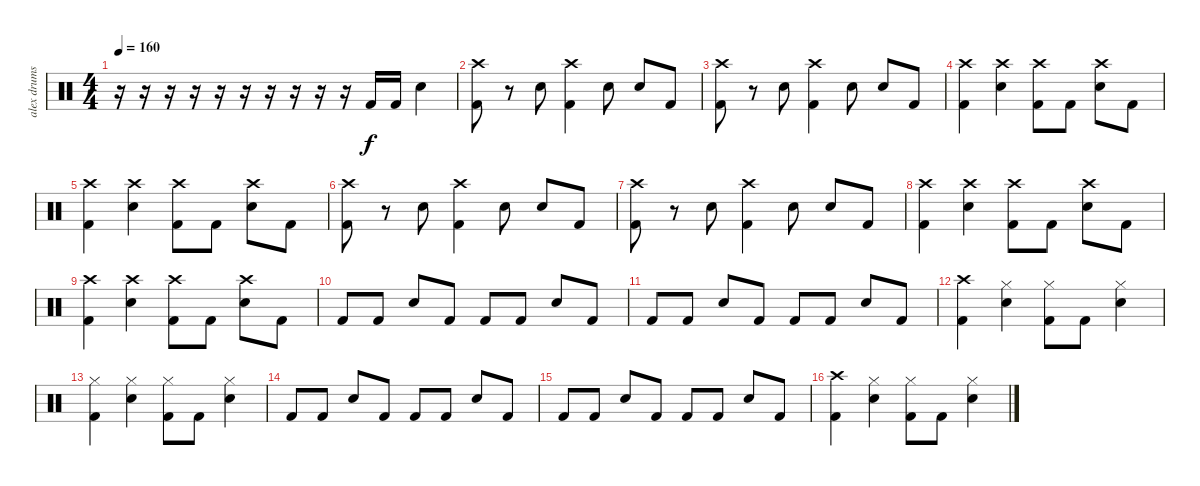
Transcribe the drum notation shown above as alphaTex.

\track ("alex drums" "alex drums") {instrument percussion}
\staff {score}
\articulation defaults
\ts (4 4)
\tempo 160
\clef neutral
\ks c
r.16{dy f} r.16 r.16 r.16 r.16 r.16 r.16 r.16 r.16 r.16 "Kick (hit) 2".16 "Kick (hit) 2".16 "Snare (hit) 2".4 |
("Crash high (hit)" "Kick (hit) 2").8 r.8 "Snare (hit) 2".8 ("Crash high (hit)" "Kick (hit) 2").4 "Snare (hit) 2".8 "Snare (hit) 2".8 "Kick (hit) 2".8 |
("Crash high (hit)" "Kick (hit) 2").8 r.8 "Snare (hit) 2".8 ("Crash high (hit)" "Kick (hit) 2").4 "Snare (hit) 2".8 "Snare (hit) 2".8 "Kick (hit) 2".8 |
("Crash high (hit)" "Kick (hit) 2").4 ("Crash high (hit)" "Snare (hit) 2").4 ("Crash high (hit)" "Kick (hit) 2").8 "Kick (hit) 2".8 ("Crash high (hit)" "Snare (hit) 2").8 "Kick (hit) 2".8 |
("Crash high (hit)" "Kick (hit) 2").4 ("Crash high (hit)" "Snare (hit) 2").4 ("Crash high (hit)" "Kick (hit) 2").8 "Kick (hit) 2".8 ("Crash high (hit)" "Snare (hit) 2").8 "Kick (hit) 2".8 |
("Crash high (hit)" "Kick (hit) 2").8 r.8 "Snare (hit) 2".8 ("Crash high (hit)" "Kick (hit) 2").4 "Snare (hit) 2".8 "Snare (hit) 2".8 "Kick (hit) 2".8 |
("Crash high (hit)" "Kick (hit) 2").8 r.8 "Snare (hit) 2".8 ("Crash high (hit)" "Kick (hit) 2").4 "Snare (hit) 2".8 "Snare (hit) 2".8 "Kick (hit) 2".8 |
("Crash high (hit)" "Kick (hit) 2").4 ("Crash high (hit)" "Snare (hit) 2").4 ("Crash high (hit)" "Kick (hit) 2").8 "Kick (hit) 2".8 ("Crash high (hit)" "Snare (hit) 2").8 "Kick (hit) 2".8 |
("Crash high (hit)" "Kick (hit) 2").4 ("Crash high (hit)" "Snare (hit) 2").4 ("Crash high (hit)" "Kick (hit) 2").8 "Kick (hit) 2".8 ("Crash high (hit)" "Snare (hit) 2").8 "Kick (hit) 2".8 |
"Kick (hit) 2".8 "Kick (hit) 2".8 "Snare (hit) 2".8 "Kick (hit) 2".8 "Kick (hit) 2".8 "Kick (hit) 2".8 "Snare (hit) 2".8 "Kick (hit) 2".8 |
"Kick (hit) 2".8 "Kick (hit) 2".8 "Snare (hit) 2".8 "Kick (hit) 2".8 "Kick (hit) 2".8 "Kick (hit) 2".8 "Snare (hit) 2".8 "Kick (hit) 2".8 |
("Crash high (hit)" "Kick (hit) 2").4 ("Hi-Hat (closed)" "Snare (hit) 2").4 ("Hi-Hat (closed)" "Kick (hit) 2").8 "Kick (hit) 2".8 ("Hi-Hat (closed)" "Snare (hit) 2").4 |
("Hi-Hat (closed)" "Kick (hit) 2").4 ("Hi-Hat (closed)" "Snare (hit) 2").4 ("Hi-Hat (closed)" "Kick (hit) 2").8 "Kick (hit) 2".8 ("Hi-Hat (closed)" "Snare (hit) 2").4 |
"Kick (hit) 2".8 "Kick (hit) 2".8 "Snare (hit) 2".8 "Kick (hit) 2".8 "Kick (hit) 2".8 "Kick (hit) 2".8 "Snare (hit) 2".8 "Kick (hit) 2".8 |
"Kick (hit) 2".8 "Kick (hit) 2".8 "Snare (hit) 2".8 "Kick (hit) 2".8 "Kick (hit) 2".8 "Kick (hit) 2".8 "Snare (hit) 2".8 "Kick (hit) 2".8 |
("Crash high (hit)" "Kick (hit) 2").4 ("Hi-Hat (closed)" "Snare (hit) 2").4 ("Hi-Hat (closed)" "Kick (hit) 2").8 "Kick (hit) 2".8 ("Hi-Hat (closed)" "Snare (hit) 2").4
